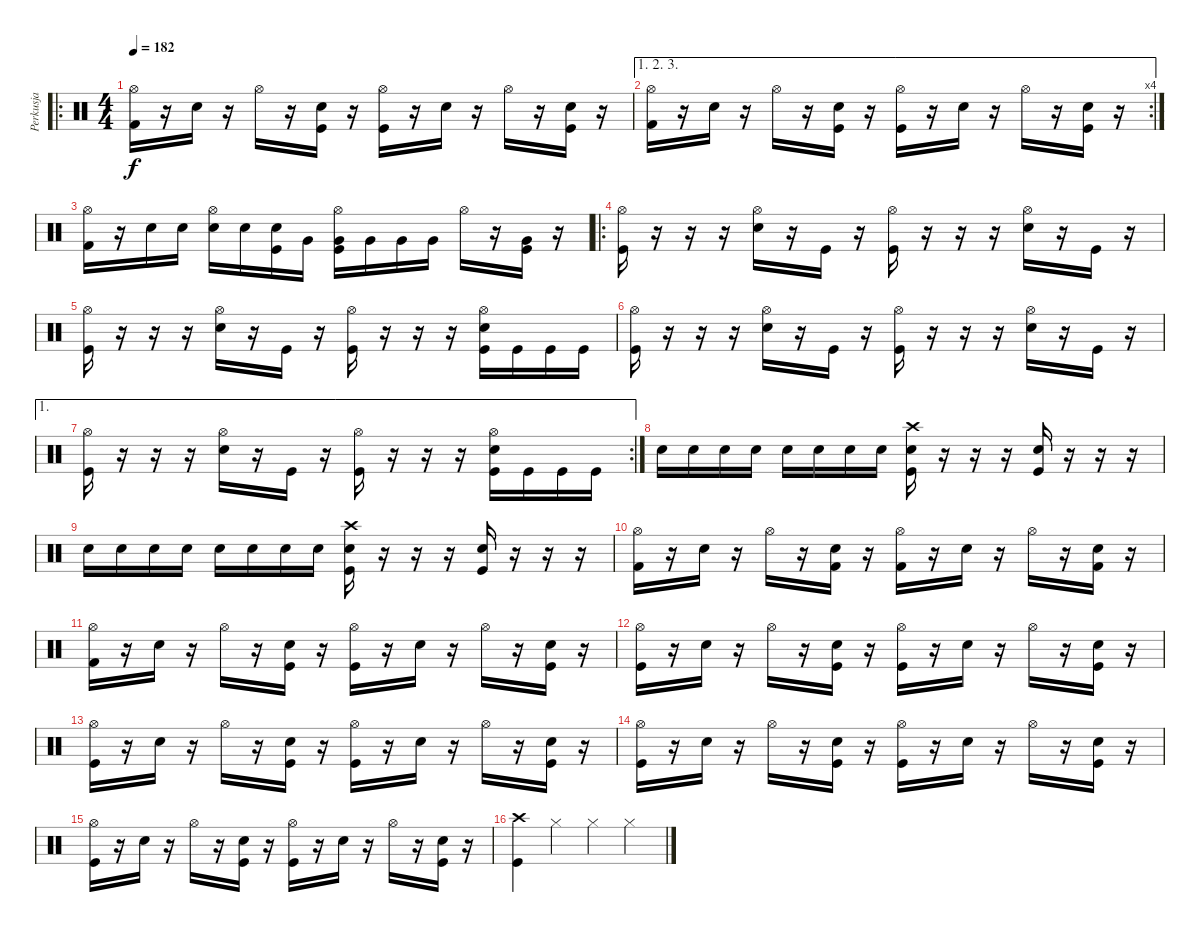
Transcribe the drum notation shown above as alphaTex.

\track ("Perkusja" "Perkusja") {instrument percussion}
\staff {score}
\articulation defaults
\ro
\ts (4 4)
\tempo 182
\clef neutral
\ks c
("Hi-Hat (open)" "Kick (hit) 2").16{dy f} r.16 "Snare (hit) 2".16 r.16 "Hi-Hat (open)".16 r.16 ("Snare (hit) 2" "Kick (hit)").16 r.16 ("Hi-Hat (open)" "Kick (hit)").16 r.16 "Snare (hit) 2".16 r.16 "Hi-Hat (open)".16 r.16 ("Snare (hit) 2" "Kick (hit)").16 r.16 |
\ae (1 2 3)
\rc 4
("Hi-Hat (open)" "Kick (hit) 2").16 r.16 "Snare (hit) 2".16 r.16 "Hi-Hat (open)".16 r.16 ("Snare (hit) 2" "Kick (hit)").16 r.16 ("Hi-Hat (open)" "Kick (hit)").16 r.16 "Snare (hit) 2".16 r.16 "Hi-Hat (open)".16 r.16 ("Snare (hit) 2" "Kick (hit)").16 r.16 |
("Hi-Hat (open)" "Kick (hit) 2").16 r.16 "Snare (hit) 2".16 "Snare (hit) 2".16 ("Hi-Hat (open)" "Snare (hit) 2").16 "Snare (hit) 2".16 ("Snare (hit) 2" "Kick (hit)").16 "Very Low Tom (hit)".16 ("Hi-Hat (open)" "Very Low Tom (hit)" "Kick (hit)").16 "Very Low Tom (hit)".16 "Very Low Tom (hit)".16 "Very Low Tom (hit)".16 "Hi-Hat (open)".16 r.16 ("Very Low Tom (hit)" "Kick (hit)").16 r.16 |
\ro
("Hi-Hat (open)" "Kick (hit)").16 r.16 r.16 r.16 ("Hi-Hat (open)" "Snare (hit) 2").16 r.16 "Kick (hit)".16 r.16 ("Hi-Hat (open)" "Kick (hit)").16 r.16 r.16 r.16 ("Hi-Hat (open)" "Snare (hit) 2").16 r.16 "Kick (hit)".16 r.16 |
("Hi-Hat (open)" "Kick (hit)").16 r.16 r.16 r.16 ("Hi-Hat (open)" "Snare (hit) 2").16 r.16 "Kick (hit)".16 r.16 ("Hi-Hat (open)" "Kick (hit)").16 r.16 r.16 r.16 ("Hi-Hat (open)" "Snare (hit) 2" "Kick (hit)").16 "Kick (hit)".16 "Kick (hit)".16 "Kick (hit)".16 |
("Hi-Hat (open)" "Kick (hit)").16 r.16 r.16 r.16 ("Hi-Hat (open)" "Snare (hit) 2").16 r.16 "Kick (hit)".16 r.16 ("Hi-Hat (open)" "Kick (hit)").16 r.16 r.16 r.16 ("Hi-Hat (open)" "Snare (hit) 2").16 r.16 "Kick (hit)".16 r.16 |
\ae 1
\rc 2
("Hi-Hat (open)" "Kick (hit)").16 r.16 r.16 r.16 ("Hi-Hat (open)" "Snare (hit) 2").16 r.16 "Kick (hit)".16 r.16 ("Hi-Hat (open)" "Kick (hit)").16 r.16 r.16 r.16 ("Hi-Hat (open)" "Snare (hit) 2" "Kick (hit)").16 "Kick (hit)".16 "Kick (hit)".16 "Kick (hit)".16 |
"Snare (hit) 2".16 "Snare (hit) 2".16 "Snare (hit) 2".16 "Snare (hit) 2".16 "Snare (hit) 2".16 "Snare (hit) 2".16 "Snare (hit) 2".16 "Snare (hit) 2".16 ("Crash high (hit)" "Snare (hit) 2" "Kick (hit)").16 r.16 r.16 r.16 ("Snare (hit) 2" "Kick (hit)").16 r.16 r.16 r.16 |
"Snare (hit) 2".16 "Snare (hit) 2".16 "Snare (hit) 2".16 "Snare (hit) 2".16 "Snare (hit) 2".16 "Snare (hit) 2".16 "Snare (hit) 2".16 "Snare (hit) 2".16 ("Crash high (hit)" "Snare (hit) 2" "Kick (hit)").16 r.16 r.16 r.16 ("Snare (hit) 2" "Kick (hit)").16 r.16 r.16 r.16 |
("Hi-Hat (open)" "Kick (hit) 2").16 r.16 "Snare (hit) 2".16 r.16 "Hi-Hat (open)".16 r.16 ("Snare (hit) 2" "Kick (hit) 2").16 r.16 ("Hi-Hat (open)" "Kick (hit) 2").16 r.16 "Snare (hit) 2".16 r.16 "Hi-Hat (open)".16 r.16 ("Snare (hit) 2" "Kick (hit) 2").16 r.16 |
("Hi-Hat (open)" "Kick (hit) 2").16 r.16 "Snare (hit) 2".16 r.16 "Hi-Hat (open)".16 r.16 ("Snare (hit) 2" "Kick (hit)").16 r.16 ("Hi-Hat (open)" "Kick (hit)").16 r.16 "Snare (hit) 2".16 r.16 "Hi-Hat (open)".16 r.16 ("Snare (hit) 2" "Kick (hit)").16 r.16 |
("Hi-Hat (open)" "Kick (hit)").16 r.16 "Snare (hit) 2".16 r.16 "Hi-Hat (open)".16 r.16 ("Snare (hit) 2" "Kick (hit)").16 r.16 ("Hi-Hat (open)" "Kick (hit)").16 r.16 "Snare (hit) 2".16 r.16 "Hi-Hat (open)".16 r.16 ("Snare (hit) 2" "Kick (hit)").16 r.16 |
("Hi-Hat (open)" "Kick (hit)").16 r.16 "Snare (hit) 2".16 r.16 "Hi-Hat (open)".16 r.16 ("Snare (hit) 2" "Kick (hit)").16 r.16 ("Hi-Hat (open)" "Kick (hit)").16 r.16 "Snare (hit) 2".16 r.16 "Hi-Hat (open)".16 r.16 ("Snare (hit) 2" "Kick (hit)").16 r.16 |
("Hi-Hat (open)" "Kick (hit)").16 r.16 "Snare (hit) 2".16 r.16 "Hi-Hat (open)".16 r.16 ("Snare (hit) 2" "Kick (hit)").16 r.16 ("Hi-Hat (open)" "Kick (hit)").16 r.16 "Snare (hit) 2".16 r.16 "Hi-Hat (open)".16 r.16 ("Snare (hit) 2" "Kick (hit)").16 r.16 |
("Hi-Hat (open)" "Kick (hit)").16 r.16 "Snare (hit) 2".16 r.16 "Hi-Hat (open)".16 r.16 ("Snare (hit) 2" "Kick (hit)").16 r.16 ("Hi-Hat (open)" "Kick (hit)").16 r.16 "Snare (hit) 2".16 r.16 "Hi-Hat (open)".16 r.16 ("Snare (hit) 2" "Kick (hit)").16 r.16 |
("Crash high (hit)" "Kick (hit)").4 "Hi-Hat (closed)".4 "Hi-Hat (closed)".4 "Hi-Hat (closed)".4
